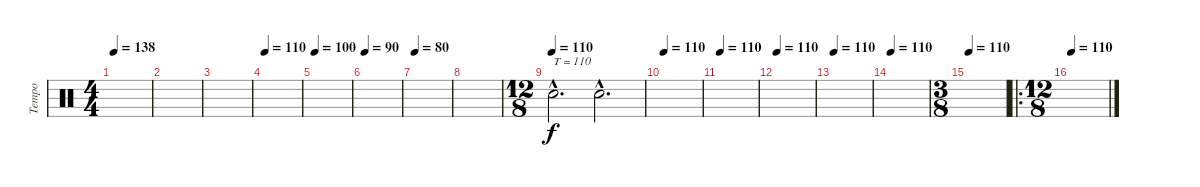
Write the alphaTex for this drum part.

\track ("Tempo" "Tempo") {instrument percussion}
\staff {score}
\articulation defaults
\ts (4 4)
\tempo 138
\clef neutral
\ks c
|
|
|
\tempo 110
|
\tempo 100
|
\tempo 90
|
\tempo 80
|
|
\ts (12 8)
\tempo (110)
"Snare (hit)"{hac x}.2{d txt "T = 110"} "Snare (hit)"{hac x}.2{d} |
\tempo 110
|
\tempo 110
|
\tempo 110
|
\tempo 110
|
\tempo 110
|
\ts (3 8)
\tempo 110
|
\ro
\ts (12 8)
\tempo 110
